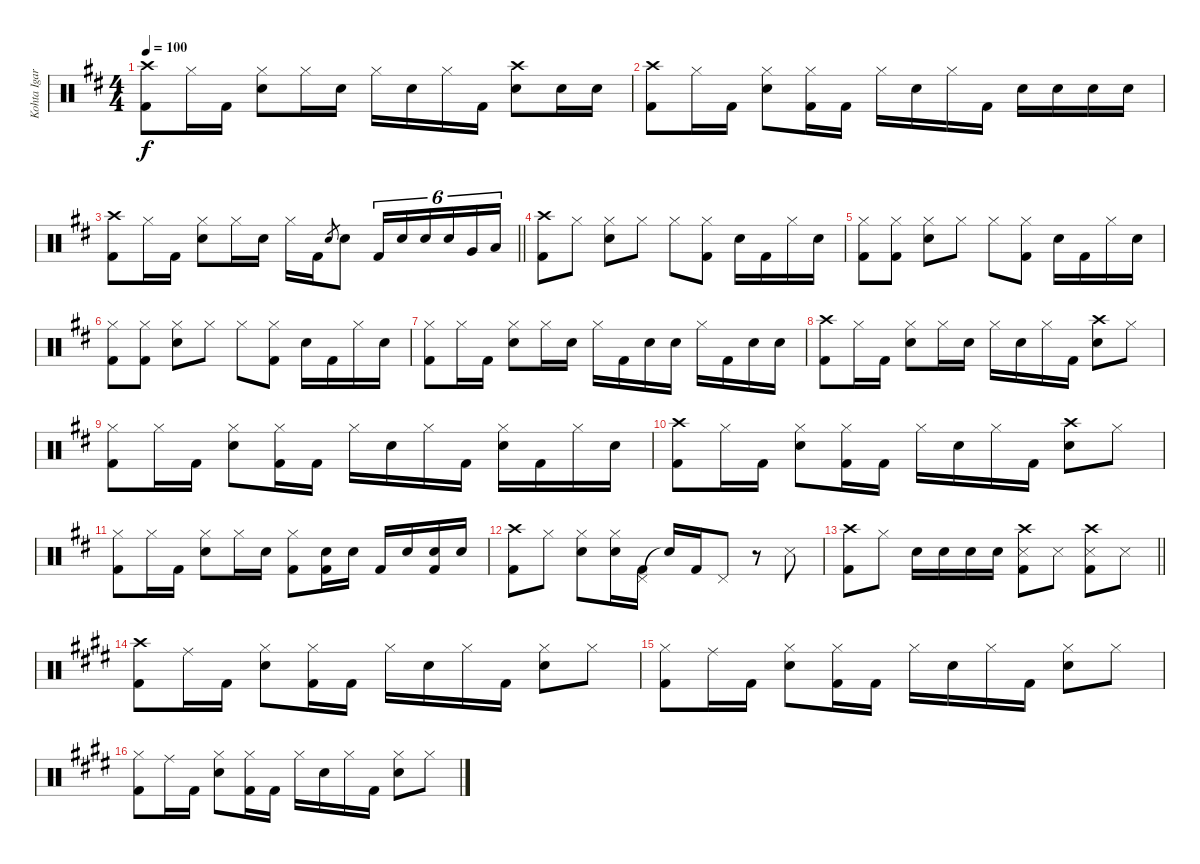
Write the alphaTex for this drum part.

\track ("Kohta Igarashi" "Kohta Igar") {instrument percussion}
\staff {score}
\articulation defaults
\ts (4 4)
\tempo 100
\clef neutral
\ks d
("Crash high (hit)" "Kick (hit) 2").8{dy f} "Hi-Hat (closed)".16 "Kick (hit) 2".16 ("Hi-Hat (closed)" "Electric Snare (hit)").8 "Hi-Hat (closed)".16 "Electric Snare (hit)".16 "Hi-Hat (closed)".16 "Electric Snare (hit)".16 "Hi-Hat (closed)".16 "Kick (hit) 2".16 ("Crash high (hit)" "Electric Snare (hit)").8 "Electric Snare (hit)".16 "Electric Snare (hit)".16 |
("Crash high (hit)" "Kick (hit) 2").8 "Hi-Hat (closed)".16 "Kick (hit) 2".16 ("Hi-Hat (closed)" "Electric Snare (hit)").8 ("Hi-Hat (closed)" "Kick (hit) 2").16 "Kick (hit) 2".16 "Hi-Hat (closed)".16 "Electric Snare (hit)".16 "Hi-Hat (closed)".16 "Kick (hit) 2".16 "Electric Snare (hit)".16 "Electric Snare (hit)".16 "Electric Snare (hit)".16 "Electric Snare (hit)".16 |
\barLineRight lightlight
("Crash high (hit)" "Kick (hit) 2").8 "Hi-Hat (closed)".16 "Kick (hit) 2".16 ("Hi-Hat (closed)" "Electric Snare (hit)").8 "Hi-Hat (closed)".16 "Electric Snare (hit)".16 "Hi-Hat (closed)".16 "Kick (hit) 2".16 "Electric Snare (hit)".8{gr} "Electric Snare (hit)".8 "Kick (hit) 2".16{tu (6 4)} "Electric Snare (hit)".16{tu (6 4)} "Electric Snare (hit)".16{tu (6 4)} "Electric Snare (hit)".16{tu (6 4)} "Very Low Tom (hit)".16{tu (6 4)} "Low Floor Tom (hit)".16{tu (6 4)} |
("Crash high (hit)" "Kick (hit) 2").8 "Hi-Hat (closed)".8 ("Hi-Hat (closed)" "Electric Snare (hit)").8 "Hi-Hat (closed)".8 "Hi-Hat (closed)".8 ("Hi-Hat (closed)" "Kick (hit) 2").8 "Electric Snare (hit)".16 "Kick (hit) 2".16 "Hi-Hat (closed)".16 "Electric Snare (hit)".16 |
("Hi-Hat (closed)" "Kick (hit) 2").8 ("Hi-Hat (closed)" "Kick (hit) 2").8 ("Hi-Hat (closed)" "Electric Snare (hit)").8 "Hi-Hat (closed)".8 "Hi-Hat (closed)".8 ("Hi-Hat (closed)" "Kick (hit) 2").8 "Electric Snare (hit)".16 "Kick (hit) 2".16 "Hi-Hat (closed)".16 "Electric Snare (hit)".16 |
("Hi-Hat (closed)" "Kick (hit) 2").8 ("Hi-Hat (closed)" "Kick (hit) 2").8 ("Hi-Hat (closed)" "Electric Snare (hit)").8 "Hi-Hat (closed)".8 "Hi-Hat (closed)".8 ("Hi-Hat (closed)" "Kick (hit) 2").8 "Electric Snare (hit)".16 "Kick (hit) 2".16 "Hi-Hat (closed)".16 "Electric Snare (hit)".16 |
("Hi-Hat (closed)" "Kick (hit) 2").8 "Hi-Hat (closed)".16 "Kick (hit) 2".16 ("Hi-Hat (closed)" "Electric Snare (hit)").8 "Hi-Hat (closed)".16 "Electric Snare (hit)".16 "Hi-Hat (closed)".16 "Kick (hit) 2".16 "Electric Snare (hit)".16 "Electric Snare (hit)".16 "Hi-Hat (closed)".16 "Kick (hit) 2".16 "Electric Snare (hit)".16 "Electric Snare (hit)".16 |
("Crash high (hit)" "Kick (hit) 2").8 "Hi-Hat (closed)".16 "Kick (hit) 2".16 ("Hi-Hat (closed)" "Electric Snare (hit)").8 "Hi-Hat (closed)".16 "Electric Snare (hit)".16 "Hi-Hat (closed)".16 "Electric Snare (hit)".16 "Hi-Hat (closed)".16 "Kick (hit) 2".16 ("Crash high (hit)" "Electric Snare (hit)").8 "Hi-Hat (closed)".8 |
("Hi-Hat (closed)" "Kick (hit) 2").8 "Hi-Hat (closed)".16 "Kick (hit) 2".16 ("Hi-Hat (closed)" "Electric Snare (hit)").8 ("Hi-Hat (closed)" "Kick (hit) 2").16 "Kick (hit) 2".16 "Hi-Hat (closed)".16 "Electric Snare (hit)".16 "Hi-Hat (closed)".16 "Kick (hit) 2".16 ("Hi-Hat (closed)" "Electric Snare (hit)").16 "Kick (hit) 2".16 "Hi-Hat (closed)".16 "Electric Snare (hit)".16 |
("Crash high (hit)" "Kick (hit) 2").8 "Hi-Hat (closed)".16 "Kick (hit) 2".16 ("Hi-Hat (closed)" "Electric Snare (hit)").8 ("Hi-Hat (closed)" "Kick (hit) 2").16 "Kick (hit) 2".16 "Hi-Hat (closed)".16 "Electric Snare (hit)".16 "Hi-Hat (closed)".16 "Kick (hit) 2".16 ("Crash high (hit)" "Electric Snare (hit)").8 "Hi-Hat (closed)".8 |
("Hi-Hat (closed)" "Kick (hit) 2").8 "Hi-Hat (closed)".16 "Kick (hit) 2".16 ("Hi-Hat (closed)" "Electric Snare (hit)").8 "Hi-Hat (closed)".16 "Electric Snare (hit)".16 ("Hi-Hat (closed)" "Kick (hit) 2").8 ("Electric Snare (hit)" "Kick (hit) 2").16 "Electric Snare (hit)".16 "Kick (hit) 2".16 "Electric Snare (hit)".16 ("Electric Snare (hit)" "Kick (hit) 2").16 "Electric Snare (hit)".16 |
("Crash high (hit)" "Kick (hit) 2").8 "Hi-Hat (closed)".8 ("Hi-Hat (closed)" "Electric Snare (hit)").8 ("Hi-Hat (closed)" "Electric Snare (hit)").16 ("Pedal Hi-Hat (hit)" "Kick (hit) 2").16 "Snare (hit)"{t}.16 "Kick (hit) 2".16 "Pedal Hi-Hat (hit)".8 r.8 "Snare (side stick) 3".8 |
\barLineRight lightlight
("Crash high (hit)" "Kick (hit) 2").8 "Hi-Hat (closed)".8 "Electric Snare (hit)".16 "Electric Snare (hit)".16 "Electric Snare (hit)".16 "Electric Snare (hit)".16 ("Crash high (hit)" "Snare (side stick) 3" "Kick (hit) 2").8 "Snare (side stick) 3".8 ("Crash high (hit)" "Snare (side stick) 3" "Kick (hit) 2").8 "Snare (side stick) 3".8 |
\ks e
("Crash high (hit)" "Kick (hit) 2").8 "Ride (middle)".16 "Kick (hit) 2".16 ("Hi-Hat (closed)" "Electric Snare (hit)").8 ("Hi-Hat (closed)" "Kick (hit) 2").16 "Kick (hit) 2".16 "Hi-Hat (closed)".16 "Electric Snare (hit)".16 "Hi-Hat (closed)".16 "Kick (hit) 2".16 ("Hi-Hat (closed)" "Electric Snare (hit)").8 "Hi-Hat (closed)".8 |
("Hi-Hat (closed)" "Kick (hit) 2").8 "Ride (middle)".16 "Kick (hit) 2".16 ("Hi-Hat (closed)" "Electric Snare (hit)").8 ("Hi-Hat (closed)" "Kick (hit) 2").16 "Kick (hit) 2".16 "Hi-Hat (closed)".16 "Electric Snare (hit)".16 "Hi-Hat (closed)".16 "Kick (hit) 2".16 ("Hi-Hat (closed)" "Electric Snare (hit)").8 "Hi-Hat (closed)".8 |
("Hi-Hat (closed)" "Kick (hit) 2").8 "Ride (middle)".16 "Kick (hit) 2".16 ("Hi-Hat (closed)" "Electric Snare (hit)").8 ("Hi-Hat (closed)" "Kick (hit) 2").16 "Kick (hit) 2".16 "Hi-Hat (closed)".16 "Electric Snare (hit)".16 "Hi-Hat (closed)".16 "Kick (hit) 2".16 ("Hi-Hat (closed)" "Electric Snare (hit)").8 "Hi-Hat (closed)".8
